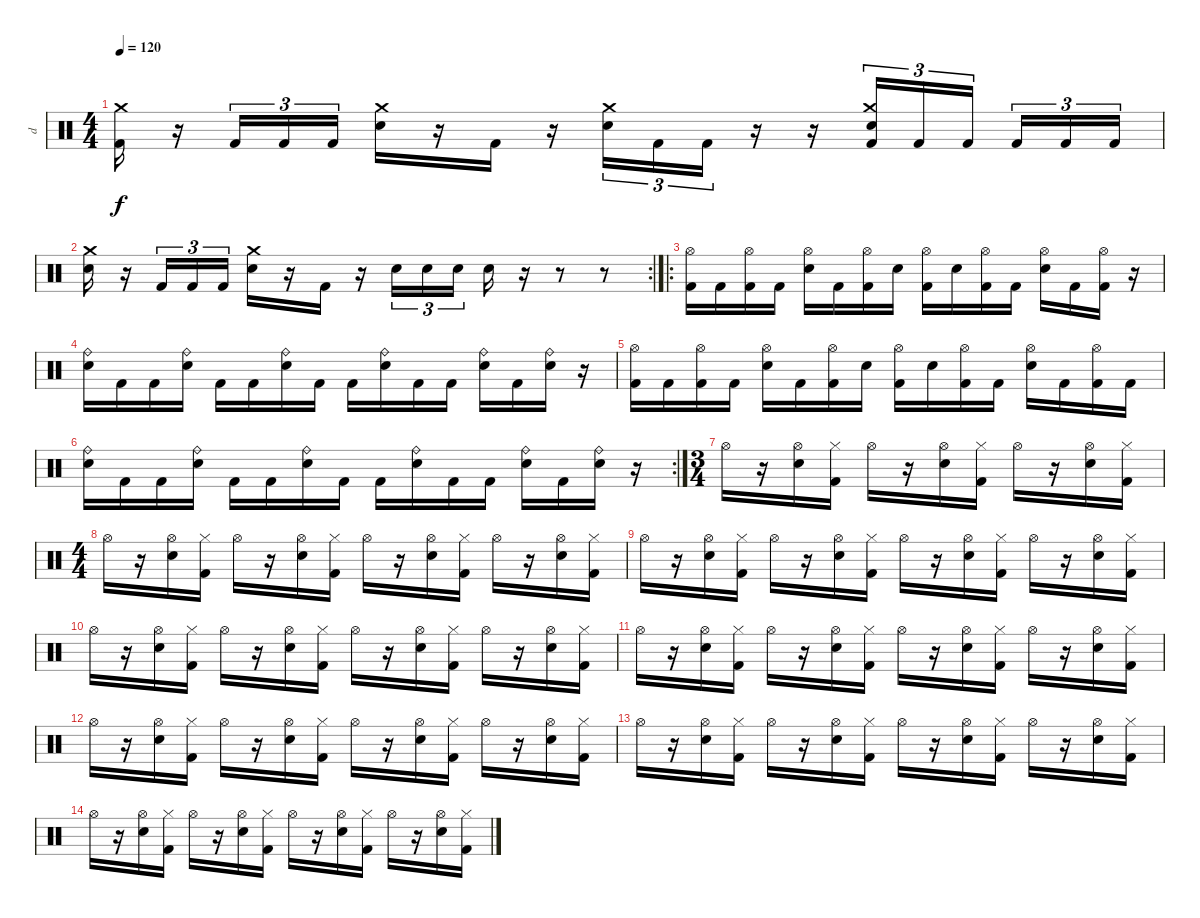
\track ("d" "d") {instrument percussion}
\staff {score}
\articulation defaults
\ts (4 4)
\tempo 120
\clef neutral
\ks c
("Kick (hit) 2" "Crash medium (hit)").16{dy f} r.16 "Kick (hit) 2".16{tu (3 2)} "Kick (hit) 2".16{tu (3 2)} "Kick (hit) 2".16{tu (3 2)} ("Electric Snare (hit)" "Crash medium (hit)").16 r.16 "Kick (hit) 2".16 r.16 ("Electric Snare (hit)" "Crash medium (hit)").16{tu (3 2)} "Kick (hit) 2".16{tu (3 2)} "Kick (hit) 2".16{tu (3 2)} r.16 r.16 ("Kick (hit) 2" "Electric Snare (hit)" "Crash medium (hit)").16{tu (3 2)} "Kick (hit) 2".16{tu (3 2)} "Kick (hit) 2".16{tu (3 2) beam splitsecondary} "Kick (hit) 2".16{tu (3 2)} "Kick (hit) 2".16{tu (3 2)} "Kick (hit) 2".16{tu (3 2)} |
\rc 2
("Electric Snare (hit)" "Crash medium (hit)").16 r.16 "Kick (hit) 2".16{tu (3 2)} "Kick (hit) 2".16{tu (3 2)} "Kick (hit) 2".16{tu (3 2)} ("Electric Snare (hit)" "Crash medium (hit)").16 r.16 "Kick (hit) 2".16 r.16 "Electric Snare (hit)".16{tu (3 2)} "Electric Snare (hit)".16{tu (3 2)} "Electric Snare (hit)".16{tu (3 2) beam splitsecondary} "Electric Snare (hit)".16 r.16 r.8 r.8 |
\ro
("Hi-Hat (open)" "Kick (hit) 2").16 "Kick (hit) 2".16 ("Hi-Hat (open)" "Kick (hit) 2").16 "Kick (hit) 2".16 ("Hi-Hat (open)" "Electric Snare (hit)").16 "Kick (hit) 2".16 ("Hi-Hat (open)" "Kick (hit) 2").16 "Electric Snare (hit)".16 ("Hi-Hat (open)" "Kick (hit) 2").16 "Electric Snare (hit)".16 ("Hi-Hat (open)" "Kick (hit) 2").16 "Kick (hit) 2".16 ("Hi-Hat (open)" "Electric Snare (hit)").16 "Kick (hit) 2".16 ("Hi-Hat (open)" "Kick (hit) 2").16 r.16 |
("Ride (bell)" "Electric Snare (hit)").16 "Kick (hit) 2".16 "Kick (hit) 2".16 ("Ride (bell)" "Electric Snare (hit)").16 "Kick (hit) 2".16 "Kick (hit) 2".16 ("Ride (bell)" "Electric Snare (hit)").16 "Kick (hit) 2".16 "Kick (hit) 2".16 ("Ride (bell)" "Electric Snare (hit)").16 "Kick (hit) 2".16 "Kick (hit) 2".16 ("Ride (bell)" "Electric Snare (hit)").16 "Kick (hit) 2".16 ("Ride (bell)" "Electric Snare (hit)").16 r.16 |
("Hi-Hat (open)" "Kick (hit) 2").16 "Kick (hit) 2".16 ("Hi-Hat (open)" "Kick (hit) 2").16 "Kick (hit) 2".16 ("Hi-Hat (open)" "Electric Snare (hit)").16 "Kick (hit) 2".16 ("Hi-Hat (open)" "Kick (hit) 2").16 "Electric Snare (hit)".16 ("Hi-Hat (open)" "Kick (hit) 2").16 "Electric Snare (hit)".16 ("Hi-Hat (open)" "Kick (hit) 2").16 "Kick (hit) 2".16 ("Hi-Hat (open)" "Electric Snare (hit)").16 "Kick (hit) 2".16 ("Hi-Hat (open)" "Kick (hit) 2").16 "Kick (hit) 2".16 |
\rc 2
("Ride (bell)" "Electric Snare (hit)").16 "Kick (hit) 2".16 "Kick (hit) 2".16 ("Ride (bell)" "Electric Snare (hit)").16 "Kick (hit) 2".16 "Kick (hit) 2".16 ("Ride (bell)" "Electric Snare (hit)").16 "Kick (hit) 2".16 "Kick (hit) 2".16 ("Ride (bell)" "Electric Snare (hit)").16 "Kick (hit) 2".16 "Kick (hit) 2".16 ("Ride (bell)" "Electric Snare (hit)").16 "Kick (hit) 2".16 ("Ride (bell)" "Electric Snare (hit)").16 r.16 |
\ts (3 4)
"Hi-Hat (open)".16 r.16 ("Hi-Hat (open)" "Electric Snare (hit)").16 ("Hi-Hat (closed)" "Kick (hit) 2").16 "Hi-Hat (open)".16 r.16 ("Hi-Hat (open)" "Electric Snare (hit)").16 ("Hi-Hat (closed)" "Kick (hit) 2").16 "Hi-Hat (open)".16 r.16 ("Hi-Hat (open)" "Electric Snare (hit)").16 ("Hi-Hat (closed)" "Kick (hit) 2").16 |
\ts (4 4)
"Hi-Hat (open)".16 r.16 ("Hi-Hat (open)" "Electric Snare (hit)").16 ("Hi-Hat (closed)" "Kick (hit) 2").16 "Hi-Hat (open)".16 r.16 ("Hi-Hat (open)" "Electric Snare (hit)").16 ("Hi-Hat (closed)" "Kick (hit) 2").16 "Hi-Hat (open)".16 r.16 ("Hi-Hat (open)" "Electric Snare (hit)").16 ("Hi-Hat (closed)" "Kick (hit) 2").16 "Hi-Hat (open)".16 r.16 ("Hi-Hat (open)" "Electric Snare (hit)").16 ("Hi-Hat (closed)" "Kick (hit) 2").16 |
"Hi-Hat (open)".16 r.16 ("Hi-Hat (open)" "Electric Snare (hit)").16 ("Hi-Hat (closed)" "Kick (hit) 2").16 "Hi-Hat (open)".16 r.16 ("Hi-Hat (open)" "Electric Snare (hit)").16 ("Hi-Hat (closed)" "Kick (hit) 2").16 "Hi-Hat (open)".16 r.16 ("Hi-Hat (open)" "Electric Snare (hit)").16 ("Hi-Hat (closed)" "Kick (hit) 2").16 "Hi-Hat (open)".16 r.16 ("Hi-Hat (open)" "Electric Snare (hit)").16 ("Hi-Hat (closed)" "Kick (hit) 2").16 |
"Hi-Hat (open)".16 r.16 ("Hi-Hat (open)" "Electric Snare (hit)").16 ("Hi-Hat (closed)" "Kick (hit) 2").16 "Hi-Hat (open)".16 r.16 ("Hi-Hat (open)" "Electric Snare (hit)").16 ("Hi-Hat (closed)" "Kick (hit) 2").16 "Hi-Hat (open)".16 r.16 ("Hi-Hat (open)" "Electric Snare (hit)").16 ("Hi-Hat (closed)" "Kick (hit) 2").16 "Hi-Hat (open)".16 r.16 ("Hi-Hat (open)" "Electric Snare (hit)").16 ("Hi-Hat (closed)" "Kick (hit) 2").16 |
"Hi-Hat (open)".16 r.16 ("Hi-Hat (open)" "Electric Snare (hit)").16 ("Hi-Hat (closed)" "Kick (hit) 2").16 "Hi-Hat (open)".16 r.16 ("Hi-Hat (open)" "Electric Snare (hit)").16 ("Hi-Hat (closed)" "Kick (hit) 2").16 "Hi-Hat (open)".16 r.16 ("Hi-Hat (open)" "Electric Snare (hit)").16 ("Hi-Hat (closed)" "Kick (hit) 2").16 "Hi-Hat (open)".16 r.16 ("Hi-Hat (open)" "Electric Snare (hit)").16 ("Hi-Hat (closed)" "Kick (hit) 2").16 |
"Hi-Hat (open)".16 r.16 ("Hi-Hat (open)" "Electric Snare (hit)").16 ("Hi-Hat (closed)" "Kick (hit) 2").16 "Hi-Hat (open)".16 r.16 ("Hi-Hat (open)" "Electric Snare (hit)").16 ("Hi-Hat (closed)" "Kick (hit) 2").16 "Hi-Hat (open)".16 r.16 ("Hi-Hat (open)" "Electric Snare (hit)").16 ("Hi-Hat (closed)" "Kick (hit) 2").16 "Hi-Hat (open)".16 r.16 ("Hi-Hat (open)" "Electric Snare (hit)").16 ("Hi-Hat (closed)" "Kick (hit) 2").16 |
"Hi-Hat (open)".16 r.16 ("Hi-Hat (open)" "Electric Snare (hit)").16 ("Hi-Hat (closed)" "Kick (hit) 2").16 "Hi-Hat (open)".16 r.16 ("Hi-Hat (open)" "Electric Snare (hit)").16 ("Hi-Hat (closed)" "Kick (hit) 2").16 "Hi-Hat (open)".16 r.16 ("Hi-Hat (open)" "Electric Snare (hit)").16 ("Hi-Hat (closed)" "Kick (hit) 2").16 "Hi-Hat (open)".16 r.16 ("Hi-Hat (open)" "Electric Snare (hit)").16 ("Hi-Hat (closed)" "Kick (hit) 2").16 |
"Hi-Hat (open)".16 r.16 ("Hi-Hat (open)" "Electric Snare (hit)").16 ("Hi-Hat (closed)" "Kick (hit) 2").16 "Hi-Hat (open)".16 r.16 ("Hi-Hat (open)" "Electric Snare (hit)").16 ("Hi-Hat (closed)" "Kick (hit) 2").16 "Hi-Hat (open)".16 r.16 ("Hi-Hat (open)" "Electric Snare (hit)").16 ("Hi-Hat (closed)" "Kick (hit) 2").16 "Hi-Hat (open)".16 r.16 ("Hi-Hat (open)" "Electric Snare (hit)").16 ("Hi-Hat (closed)" "Kick (hit) 2").16
